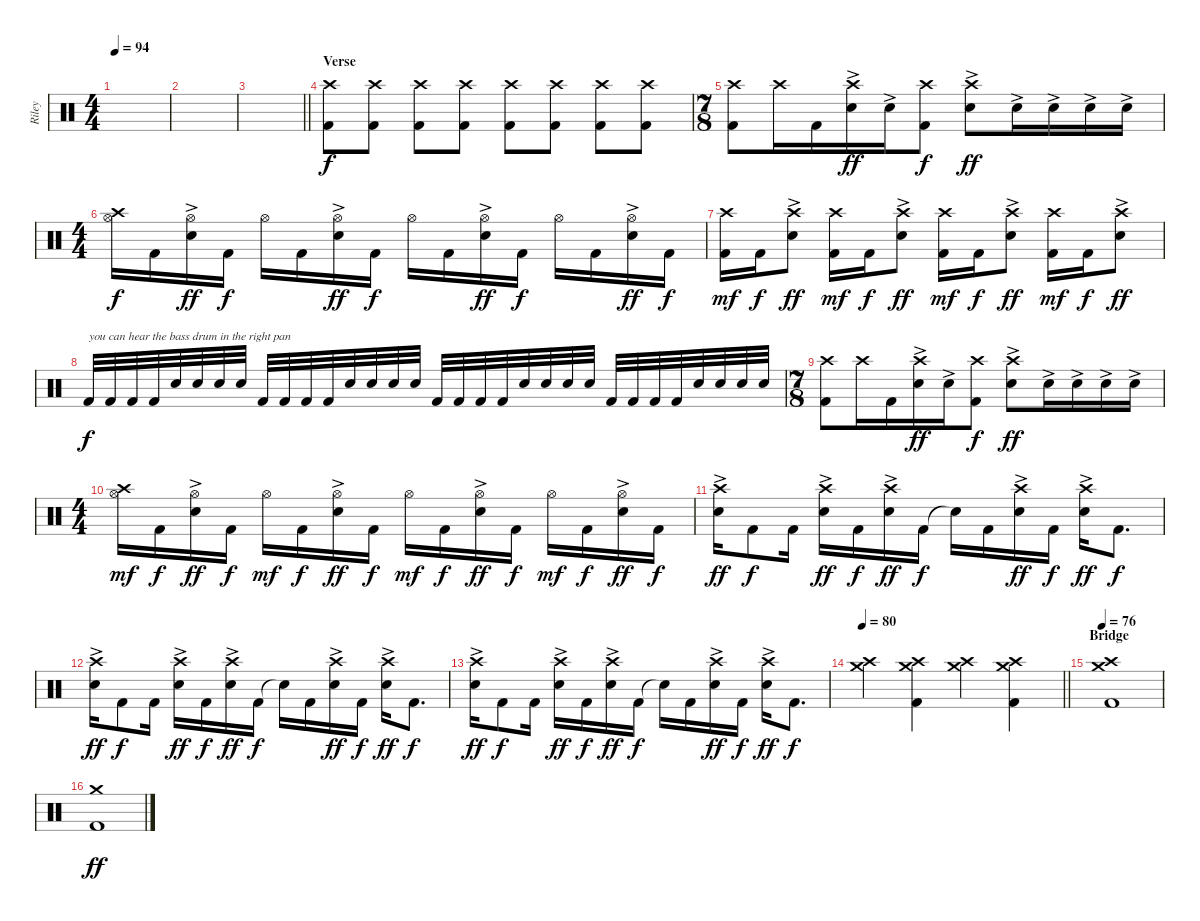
\track ("Riley" "Riley") {instrument percussion}
\staff {score}
\articulation defaults
\ts (4 4)
\tempo 94
\clef neutral
\ks c
|
|
\barLineRight lightlight
|
\section ("" "Verse")
("Crash high (hit)" "Kick (hit) 2").8 ("Crash high (hit)" "Kick (hit) 2").8 ("Crash high (hit)" "Kick (hit) 2").8 ("Crash high (hit)" "Kick (hit) 2").8 ("Crash high (hit)" "Kick (hit) 2").8 ("Crash high (hit)" "Kick (hit) 2").8 ("Crash high (hit)" "Kick (hit) 2").8 ("Crash high (hit)" "Kick (hit) 2").8 |
\ts (7 8)
("Crash high (hit)" "Kick (hit) 2").8 "Crash high (hit)".16 "Kick (hit) 2".16 ("Crash high (hit)" "Electric Snare (hit)"{ac}).16{dy ff} "Electric Snare (hit)"{ac}.16 ("Crash high (hit)" "Kick (hit) 2").8{dy f} ("Crash high (hit)" "Electric Snare (hit)"{ac}).8{dy ff} "Electric Snare (hit)"{ac}.16 "Electric Snare (hit)"{ac}.16 "Electric Snare (hit)"{ac}.16 "Electric Snare (hit)"{ac}.16 |
\ts (4 4)
("Crash high (hit)" "Hi-Hat (open)").16{dy f} "Kick (hit) 2".16 ("Hi-Hat (open)" "Electric Snare (hit)"{ac}).16{dy ff} "Kick (hit) 2".16{dy f} "Hi-Hat (open)".16 "Kick (hit) 2".16 ("Hi-Hat (open)" "Electric Snare (hit)"{ac}).16{dy ff} "Kick (hit) 2".16{dy f} "Hi-Hat (open)".16 "Kick (hit) 2".16 ("Hi-Hat (open)" "Electric Snare (hit)"{ac}).16{dy ff} "Kick (hit) 2".16{dy f} "Hi-Hat (open)".16 "Kick (hit) 2".16 ("Hi-Hat (open)" "Electric Snare (hit)"{ac}).16{dy ff} "Kick (hit) 2".16{dy f} |
("Crash high (hit)" "Kick (hit) 2").16{dy mf} "Kick (hit) 2".16{dy f} ("Crash high (hit)" "Electric Snare (hit)"{ac}).8{dy ff} ("Crash high (hit)" "Kick (hit) 2").16{dy mf} "Kick (hit) 2".16{dy f} ("Crash high (hit)" "Electric Snare (hit)"{ac}).8{dy ff} ("Crash high (hit)" "Kick (hit) 2").16{dy mf} "Kick (hit) 2".16{dy f} ("Crash high (hit)" "Electric Snare (hit)"{ac}).8{dy ff} ("Crash high (hit)" "Kick (hit) 2").16{dy mf} "Kick (hit) 2".16{dy f} ("Crash high (hit)" "Electric Snare (hit)"{ac}).8{dy ff} |
"Kick (hit) 2".32{txt "you can hear the bass drum in the right pan" dy f} "Kick (hit) 2".32 "Kick (hit) 2".32 "Kick (hit) 2".32 "Electric Snare (hit)".32 "Electric Snare (hit)".32 "Electric Snare (hit)".32 "Electric Snare (hit)".32 "Kick (hit) 2".32 "Kick (hit) 2".32 "Kick (hit) 2".32 "Kick (hit) 2".32 "Electric Snare (hit)".32 "Electric Snare (hit)".32 "Electric Snare (hit)".32 "Electric Snare (hit)".32 "Kick (hit) 2".32 "Kick (hit) 2".32 "Kick (hit) 2".32 "Kick (hit) 2".32 "Electric Snare (hit)".32 "Electric Snare (hit)".32 "Electric Snare (hit)".32 "Electric Snare (hit)".32 "Kick (hit) 2".32 "Kick (hit) 2".32 "Kick (hit) 2".32 "Kick (hit) 2".32 "Electric Snare (hit)".32 "Electric Snare (hit)".32 "Electric Snare (hit)".32 "Electric Snare (hit)".32 |
\ts (7 8)
("Crash high (hit)" "Kick (hit) 2").8 "Crash high (hit)".16 "Kick (hit) 2".16 ("Crash high (hit)" "Electric Snare (hit)"{ac}).16{dy ff} "Electric Snare (hit)"{ac}.16 ("Crash high (hit)" "Kick (hit) 2").8{dy f} ("Crash high (hit)" "Electric Snare (hit)"{ac}).8{dy ff} "Electric Snare (hit)"{ac}.16 "Electric Snare (hit)"{ac}.16 "Electric Snare (hit)"{ac}.16 "Electric Snare (hit)"{ac}.16 |
\ts (4 4)
("Crash high (hit)" "Hi-Hat (open)").16{dy mf} "Kick (hit) 2".16{dy f} ("Hi-Hat (open)" "Electric Snare (hit)"{ac}).16{dy ff} "Kick (hit) 2".16{dy f} "Hi-Hat (open)".16{dy mf} "Kick (hit) 2".16{dy f} ("Hi-Hat (open)" "Electric Snare (hit)"{ac}).16{dy ff} "Kick (hit) 2".16{dy f} "Hi-Hat (open)".16{dy mf} "Kick (hit) 2".16{dy f} ("Hi-Hat (open)" "Electric Snare (hit)"{ac}).16{dy ff} "Kick (hit) 2".16{dy f} "Hi-Hat (open)".16{dy mf} "Kick (hit) 2".16{dy f} ("Hi-Hat (open)" "Electric Snare (hit)"{ac}).16{dy ff} "Kick (hit) 2".16{dy f} |
("Crash high (hit)" "Electric Snare (hit)"{ac}).16{dy ff} "Kick (hit) 2".8{dy f} "Kick (hit) 2".16 ("Crash high (hit)" "Electric Snare (hit)"{ac}).16{dy ff} "Kick (hit) 2".16{dy f} ("Crash high (hit)" "Electric Snare (hit)"{ac}).16{dy ff} "Kick (hit) 2".16{dy f} "Snare (hit)"{t}.16 "Kick (hit) 2".16 ("Crash high (hit)" "Electric Snare (hit)"{ac}).16{dy ff} "Kick (hit) 2".16{dy f} ("Crash high (hit)" "Electric Snare (hit)"{ac}).16{dy ff} "Kick (hit) 2".8{d dy f} |
("Crash high (hit)" "Electric Snare (hit)"{ac}).16{dy ff} "Kick (hit) 2".8{dy f} "Kick (hit) 2".16 ("Crash high (hit)" "Electric Snare (hit)"{ac}).16{dy ff} "Kick (hit) 2".16{dy f} ("Crash high (hit)" "Electric Snare (hit)"{ac}).16{dy ff} "Kick (hit) 2".16{dy f} "Snare (hit)"{t}.16 "Kick (hit) 2".16 ("Crash high (hit)" "Electric Snare (hit)"{ac}).16{dy ff} "Kick (hit) 2".16{dy f} ("Crash high (hit)" "Electric Snare (hit)"{ac}).16{dy ff} "Kick (hit) 2".8{d dy f} |
("Crash high (hit)" "Electric Snare (hit)"{ac}).16{dy ff} "Kick (hit) 2".8{dy f} "Kick (hit) 2".16 ("Crash high (hit)" "Electric Snare (hit)"{ac}).16{dy ff} "Kick (hit) 2".16{dy f} ("Crash high (hit)" "Electric Snare (hit)"{ac}).16{dy ff} "Kick (hit) 2".16{dy f} "Snare (hit)"{t}.16 "Kick (hit) 2".16 ("Crash high (hit)" "Electric Snare (hit)"{ac}).16{dy ff} "Kick (hit) 2".16{dy f} ("Crash high (hit)" "Electric Snare (hit)"{ac}).16{dy ff} "Kick (hit) 2".8{d dy f} |
\tempo 76
\tempo 80
\barLineRight lightlight
("Crash high (hit)" "Crash medium (hit)").4 ("Crash high (hit)" "Crash medium (hit)" "Kick (hit) 2").4 ("Crash high (hit)" "Crash medium (hit)").4 ("Crash high (hit)" "Crash medium (hit)" "Kick (hit) 2").4 |
\section ("" "Bridge")
\tempo 76
("Crash high (hit)" "Crash medium (hit)" "Kick (hit) 2").1 |
("Crash medium (hit)" "Kick (hit) 2").1{dy ff}
